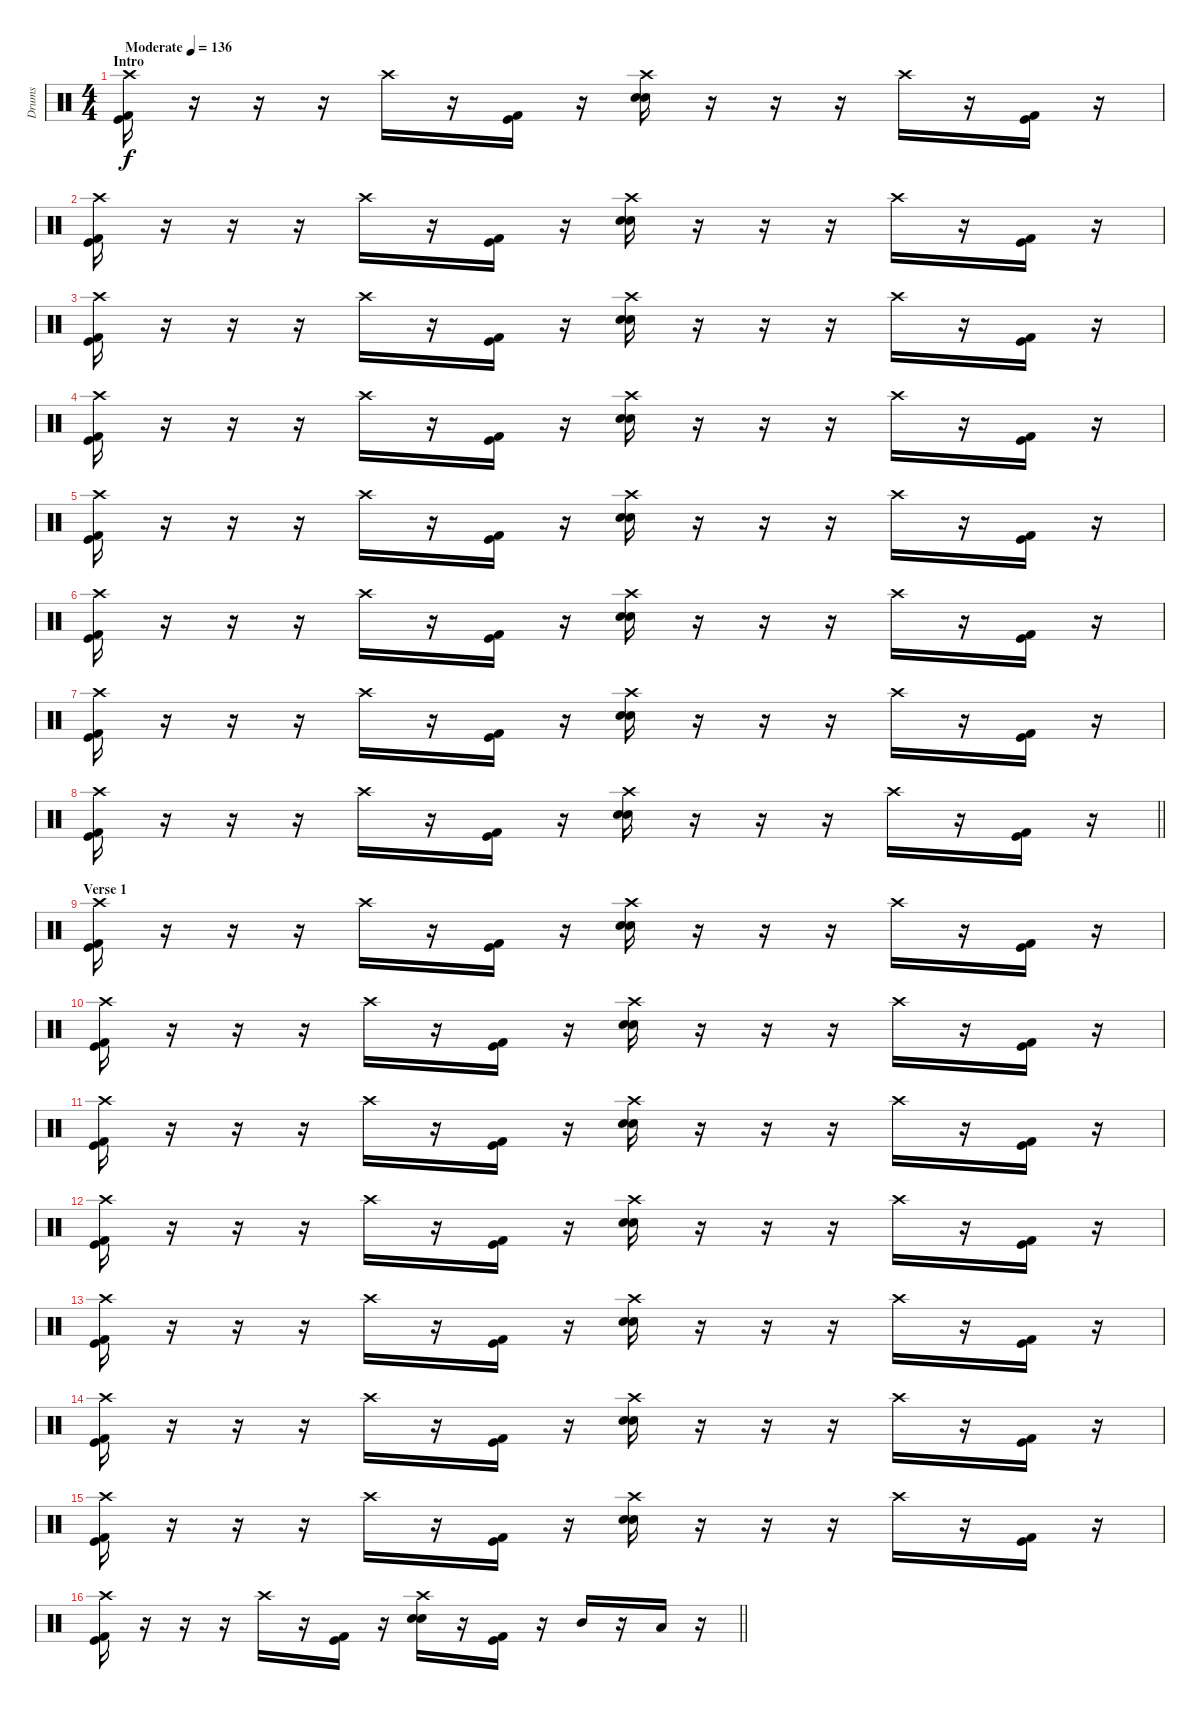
\track ("Drums" "Drums") {instrument percussion}
\staff {score}
\articulation defaults
\ts (4 4)
\section ("" "Intro")
\tempo (136 "Moderate")
\clef neutral
\ks c
("Crash high (hit)" "Kick (hit)" "Kick (hit) 2").16{dy f} r.16 r.16 r.16 "Crash high (hit)".16 r.16 ("Kick (hit)" "Kick (hit) 2").16 r.16 ("Crash high (hit)" "Electric Snare (hit)" "Snare (hit) 2").16 r.16 r.16 r.16 "Crash high (hit)".16 r.16 ("Kick (hit)" "Kick (hit) 2").16 r.16 |
("Crash high (hit)" "Kick (hit)" "Kick (hit) 2").16 r.16 r.16 r.16 "Crash high (hit)".16 r.16 ("Kick (hit)" "Kick (hit) 2").16 r.16 ("Crash high (hit)" "Electric Snare (hit)" "Snare (hit) 2").16 r.16 r.16 r.16 "Crash high (hit)".16 r.16 ("Kick (hit)" "Kick (hit) 2").16 r.16 |
("Crash high (hit)" "Kick (hit)" "Kick (hit) 2").16 r.16 r.16 r.16 "Crash high (hit)".16 r.16 ("Kick (hit)" "Kick (hit) 2").16 r.16 ("Crash high (hit)" "Electric Snare (hit)" "Snare (hit) 2").16 r.16 r.16 r.16 "Crash high (hit)".16 r.16 ("Kick (hit)" "Kick (hit) 2").16 r.16 |
("Crash high (hit)" "Kick (hit)" "Kick (hit) 2").16 r.16 r.16 r.16 "Crash high (hit)".16 r.16 ("Kick (hit)" "Kick (hit) 2").16 r.16 ("Crash high (hit)" "Electric Snare (hit)" "Snare (hit) 2").16 r.16 r.16 r.16 "Crash high (hit)".16 r.16 ("Kick (hit)" "Kick (hit) 2").16 r.16 |
("Crash high (hit)" "Kick (hit)" "Kick (hit) 2").16 r.16 r.16 r.16 "Crash high (hit)".16 r.16 ("Kick (hit)" "Kick (hit) 2").16 r.16 ("Crash high (hit)" "Electric Snare (hit)" "Snare (hit) 2").16 r.16 r.16 r.16 "Crash high (hit)".16 r.16 ("Kick (hit)" "Kick (hit) 2").16 r.16 |
("Crash high (hit)" "Kick (hit)" "Kick (hit) 2").16 r.16 r.16 r.16 "Crash high (hit)".16 r.16 ("Kick (hit)" "Kick (hit) 2").16 r.16 ("Crash high (hit)" "Electric Snare (hit)" "Snare (hit) 2").16 r.16 r.16 r.16 "Crash high (hit)".16 r.16 ("Kick (hit)" "Kick (hit) 2").16 r.16 |
("Crash high (hit)" "Kick (hit)" "Kick (hit) 2").16 r.16 r.16 r.16 "Crash high (hit)".16 r.16 ("Kick (hit)" "Kick (hit) 2").16 r.16 ("Crash high (hit)" "Electric Snare (hit)" "Snare (hit) 2").16 r.16 r.16 r.16 "Crash high (hit)".16 r.16 ("Kick (hit)" "Kick (hit) 2").16 r.16 |
\barLineRight lightlight
("Crash high (hit)" "Kick (hit)" "Kick (hit) 2").16 r.16 r.16 r.16 "Crash high (hit)".16 r.16 ("Kick (hit)" "Kick (hit) 2").16 r.16 ("Crash high (hit)" "Electric Snare (hit)" "Snare (hit) 2").16 r.16 r.16 r.16 "Crash high (hit)".16 r.16 ("Kick (hit)" "Kick (hit) 2").16 r.16 |
\section ("" "Verse 1")
("Crash high (hit)" "Kick (hit)" "Kick (hit) 2").16 r.16 r.16 r.16 "Crash high (hit)".16 r.16 ("Kick (hit)" "Kick (hit) 2").16 r.16 ("Crash high (hit)" "Electric Snare (hit)" "Snare (hit) 2").16 r.16 r.16 r.16 "Crash high (hit)".16 r.16 ("Kick (hit)" "Kick (hit) 2").16 r.16 |
("Crash high (hit)" "Kick (hit)" "Kick (hit) 2").16 r.16 r.16 r.16 "Crash high (hit)".16 r.16 ("Kick (hit)" "Kick (hit) 2").16 r.16 ("Crash high (hit)" "Electric Snare (hit)" "Snare (hit) 2").16 r.16 r.16 r.16 "Crash high (hit)".16 r.16 ("Kick (hit)" "Kick (hit) 2").16 r.16 |
("Crash high (hit)" "Kick (hit)" "Kick (hit) 2").16 r.16 r.16 r.16 "Crash high (hit)".16 r.16 ("Kick (hit)" "Kick (hit) 2").16 r.16 ("Crash high (hit)" "Electric Snare (hit)" "Snare (hit) 2").16 r.16 r.16 r.16 "Crash high (hit)".16 r.16 ("Kick (hit)" "Kick (hit) 2").16 r.16 |
("Crash high (hit)" "Kick (hit)" "Kick (hit) 2").16 r.16 r.16 r.16 "Crash high (hit)".16 r.16 ("Kick (hit)" "Kick (hit) 2").16 r.16 ("Crash high (hit)" "Electric Snare (hit)" "Snare (hit) 2").16 r.16 r.16 r.16 "Crash high (hit)".16 r.16 ("Kick (hit)" "Kick (hit) 2").16 r.16 |
("Crash high (hit)" "Kick (hit)" "Kick (hit) 2").16 r.16 r.16 r.16 "Crash high (hit)".16 r.16 ("Kick (hit)" "Kick (hit) 2").16 r.16 ("Crash high (hit)" "Electric Snare (hit)" "Snare (hit) 2").16 r.16 r.16 r.16 "Crash high (hit)".16 r.16 ("Kick (hit)" "Kick (hit) 2").16 r.16 |
("Crash high (hit)" "Kick (hit)" "Kick (hit) 2").16 r.16 r.16 r.16 "Crash high (hit)".16 r.16 ("Kick (hit)" "Kick (hit) 2").16 r.16 ("Crash high (hit)" "Electric Snare (hit)" "Snare (hit) 2").16 r.16 r.16 r.16 "Crash high (hit)".16 r.16 ("Kick (hit)" "Kick (hit) 2").16 r.16 |
("Crash high (hit)" "Kick (hit)" "Kick (hit) 2").16 r.16 r.16 r.16 "Crash high (hit)".16 r.16 ("Kick (hit)" "Kick (hit) 2").16 r.16 ("Crash high (hit)" "Electric Snare (hit)" "Snare (hit) 2").16 r.16 r.16 r.16 "Crash high (hit)".16 r.16 ("Kick (hit)" "Kick (hit) 2").16 r.16 |
\barLineRight lightlight
("Crash high (hit)" "Kick (hit)" "Kick (hit) 2").16 r.16 r.16 r.16 "Crash high (hit)".16 r.16 ("Kick (hit)" "Kick (hit) 2").16 r.16 ("Crash high (hit)" "Electric Snare (hit)" "Snare (hit) 2").16 r.16 ("Kick (hit)" "Kick (hit) 2").16 r.16 "Mid Tom (hit)".16 r.16 "Low Tom (hit)".16 r.16
